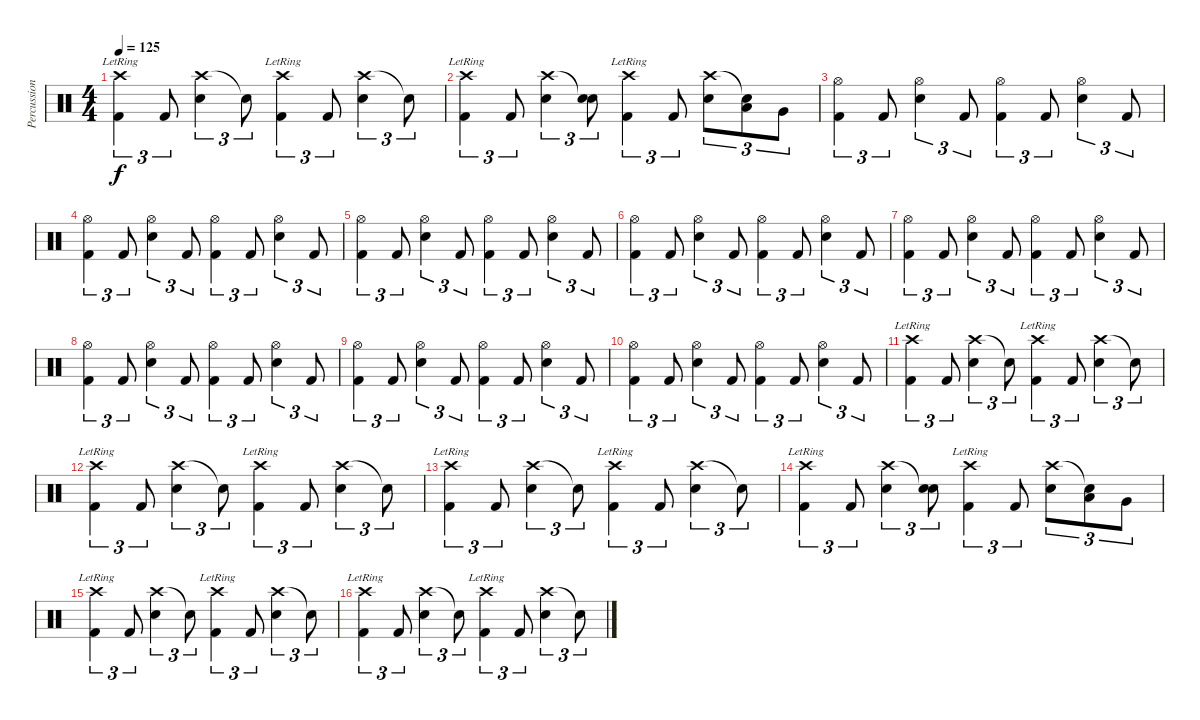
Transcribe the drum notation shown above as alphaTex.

\track ("Percussion" "Percussion") {instrument percussion}
\staff {score}
\articulation defaults
\ts (4 4)
\tempo 125
\clef neutral
\ks c
("Crash high (hit)"{lr} "Kick (hit) 2").4{tu (3 2) dy f} "Kick (hit) 2".8{tu (3 2)} ("Crash high (hit)" "Snare (hit) 2").4{tu (3 2)} "Snare (hit)"{t}.8{tu (3 2)} ("Crash high (hit)"{lr} "Kick (hit) 2").4{tu (3 2)} "Kick (hit) 2".8{tu (3 2)} ("Crash high (hit)" "Snare (hit) 2").4{tu (3 2)} "Snare (hit)"{t}.8{tu (3 2)} |
("Crash high (hit)"{lr} "Kick (hit) 2").4{tu (3 2)} "Kick (hit) 2".8{tu (3 2)} ("Crash high (hit)" "Snare (hit) 2").4{tu (3 2)} ("Snare (hit)"{t} "Snare (hit) 2").8{tu (3 2)} ("Crash high (hit)"{lr} "Kick (hit) 2").4{tu (3 2)} "Kick (hit) 2".8{tu (3 2)} ("Crash high (hit)" "Snare (hit) 2").8{tu (3 2)} ("Snare (hit)"{t} "Low Tom (hit)").8{tu (3 2)} "Very Low Tom (hit)".8{tu (3 2)} |
("Hi-Hat (open)" "Kick (hit) 2").4{tu (3 2)} "Kick (hit) 2".8{tu (3 2)} ("Hi-Hat (open)" "Snare (hit) 2").4{tu (3 2)} "Kick (hit) 2".8{tu (3 2)} ("Hi-Hat (open)" "Kick (hit) 2").4{tu (3 2)} "Kick (hit) 2".8{tu (3 2)} ("Hi-Hat (open)" "Snare (hit) 2").4{tu (3 2)} "Kick (hit) 2".8{tu (3 2)} |
("Hi-Hat (open)" "Kick (hit) 2").4{tu (3 2)} "Kick (hit) 2".8{tu (3 2)} ("Hi-Hat (open)" "Snare (hit) 2").4{tu (3 2)} "Kick (hit) 2".8{tu (3 2)} ("Hi-Hat (open)" "Kick (hit) 2").4{tu (3 2)} "Kick (hit) 2".8{tu (3 2)} ("Hi-Hat (open)" "Snare (hit) 2").4{tu (3 2)} "Kick (hit) 2".8{tu (3 2)} |
("Hi-Hat (open)" "Kick (hit) 2").4{tu (3 2)} "Kick (hit) 2".8{tu (3 2)} ("Hi-Hat (open)" "Snare (hit) 2").4{tu (3 2)} "Kick (hit) 2".8{tu (3 2)} ("Hi-Hat (open)" "Kick (hit) 2").4{tu (3 2)} "Kick (hit) 2".8{tu (3 2)} ("Hi-Hat (open)" "Snare (hit) 2").4{tu (3 2)} "Kick (hit) 2".8{tu (3 2)} |
("Hi-Hat (open)" "Kick (hit) 2").4{tu (3 2)} "Kick (hit) 2".8{tu (3 2)} ("Hi-Hat (open)" "Snare (hit) 2").4{tu (3 2)} "Kick (hit) 2".8{tu (3 2)} ("Hi-Hat (open)" "Kick (hit) 2").4{tu (3 2)} "Kick (hit) 2".8{tu (3 2)} ("Hi-Hat (open)" "Snare (hit) 2").4{tu (3 2)} "Kick (hit) 2".8{tu (3 2)} |
("Hi-Hat (open)" "Kick (hit) 2").4{tu (3 2)} "Kick (hit) 2".8{tu (3 2)} ("Hi-Hat (open)" "Snare (hit) 2").4{tu (3 2)} "Kick (hit) 2".8{tu (3 2)} ("Hi-Hat (open)" "Kick (hit) 2").4{tu (3 2)} "Kick (hit) 2".8{tu (3 2)} ("Hi-Hat (open)" "Snare (hit) 2").4{tu (3 2)} "Kick (hit) 2".8{tu (3 2)} |
("Hi-Hat (open)" "Kick (hit) 2").4{tu (3 2)} "Kick (hit) 2".8{tu (3 2)} ("Hi-Hat (open)" "Snare (hit) 2").4{tu (3 2)} "Kick (hit) 2".8{tu (3 2)} ("Hi-Hat (open)" "Kick (hit) 2").4{tu (3 2)} "Kick (hit) 2".8{tu (3 2)} ("Hi-Hat (open)" "Snare (hit) 2").4{tu (3 2)} "Kick (hit) 2".8{tu (3 2)} |
("Hi-Hat (open)" "Kick (hit) 2").4{tu (3 2)} "Kick (hit) 2".8{tu (3 2)} ("Hi-Hat (open)" "Snare (hit) 2").4{tu (3 2)} "Kick (hit) 2".8{tu (3 2)} ("Hi-Hat (open)" "Kick (hit) 2").4{tu (3 2)} "Kick (hit) 2".8{tu (3 2)} ("Hi-Hat (open)" "Snare (hit) 2").4{tu (3 2)} "Kick (hit) 2".8{tu (3 2)} |
("Hi-Hat (open)" "Kick (hit) 2").4{tu (3 2)} "Kick (hit) 2".8{tu (3 2)} ("Hi-Hat (open)" "Snare (hit) 2").4{tu (3 2)} "Kick (hit) 2".8{tu (3 2)} ("Hi-Hat (open)" "Kick (hit) 2").4{tu (3 2)} "Kick (hit) 2".8{tu (3 2)} ("Hi-Hat (open)" "Snare (hit) 2").4{tu (3 2)} "Kick (hit) 2".8{tu (3 2)} |
("Crash high (hit)"{lr} "Kick (hit) 2").4{tu (3 2)} "Kick (hit) 2".8{tu (3 2)} ("Crash high (hit)" "Snare (hit) 2").4{tu (3 2)} "Snare (hit)"{t}.8{tu (3 2)} ("Crash high (hit)"{lr} "Kick (hit) 2").4{tu (3 2)} "Kick (hit) 2".8{tu (3 2)} ("Crash high (hit)" "Snare (hit) 2").4{tu (3 2)} "Snare (hit)"{t}.8{tu (3 2)} |
("Crash high (hit)"{lr} "Kick (hit) 2").4{tu (3 2)} "Kick (hit) 2".8{tu (3 2)} ("Crash high (hit)" "Snare (hit) 2").4{tu (3 2)} "Snare (hit)"{t}.8{tu (3 2)} ("Crash high (hit)"{lr} "Kick (hit) 2").4{tu (3 2)} "Kick (hit) 2".8{tu (3 2)} ("Crash high (hit)" "Snare (hit) 2").4{tu (3 2)} "Snare (hit)"{t}.8{tu (3 2)} |
("Crash high (hit)"{lr} "Kick (hit) 2").4{tu (3 2)} "Kick (hit) 2".8{tu (3 2)} ("Crash high (hit)" "Snare (hit) 2").4{tu (3 2)} "Snare (hit)"{t}.8{tu (3 2)} ("Crash high (hit)"{lr} "Kick (hit) 2").4{tu (3 2)} "Kick (hit) 2".8{tu (3 2)} ("Crash high (hit)" "Snare (hit) 2").4{tu (3 2)} "Snare (hit)"{t}.8{tu (3 2)} |
("Crash high (hit)"{lr} "Kick (hit) 2").4{tu (3 2)} "Kick (hit) 2".8{tu (3 2)} ("Crash high (hit)" "Snare (hit) 2").4{tu (3 2)} ("Snare (hit)"{t} "Snare (hit) 2").8{tu (3 2)} ("Crash high (hit)"{lr} "Kick (hit) 2").4{tu (3 2)} "Kick (hit) 2".8{tu (3 2)} ("Crash high (hit)" "Snare (hit) 2").8{tu (3 2)} ("Snare (hit)"{t} "Low Tom (hit)").8{tu (3 2) volume 16} "Very Low Tom (hit)".8{tu (3 2)} |
("Crash high (hit)"{lr} "Kick (hit) 2").4{tu (3 2) volume 13} "Kick (hit) 2".8{tu (3 2)} ("Crash high (hit)" "Snare (hit) 2").4{tu (3 2)} "Snare (hit)"{t}.8{tu (3 2)} ("Crash high (hit)"{lr} "Kick (hit) 2").4{tu (3 2)} "Kick (hit) 2".8{tu (3 2)} ("Crash high (hit)" "Snare (hit) 2").4{tu (3 2)} "Snare (hit)"{t}.8{tu (3 2)} |
("Crash high (hit)"{lr} "Kick (hit) 2").4{tu (3 2)} "Kick (hit) 2".8{tu (3 2)} ("Crash high (hit)" "Snare (hit) 2").4{tu (3 2)} "Snare (hit)"{t}.8{tu (3 2)} ("Crash high (hit)"{lr} "Kick (hit) 2").4{tu (3 2)} "Kick (hit) 2".8{tu (3 2)} ("Crash high (hit)" "Snare (hit) 2").4{tu (3 2)} "Snare (hit)"{t}.8{tu (3 2)}
